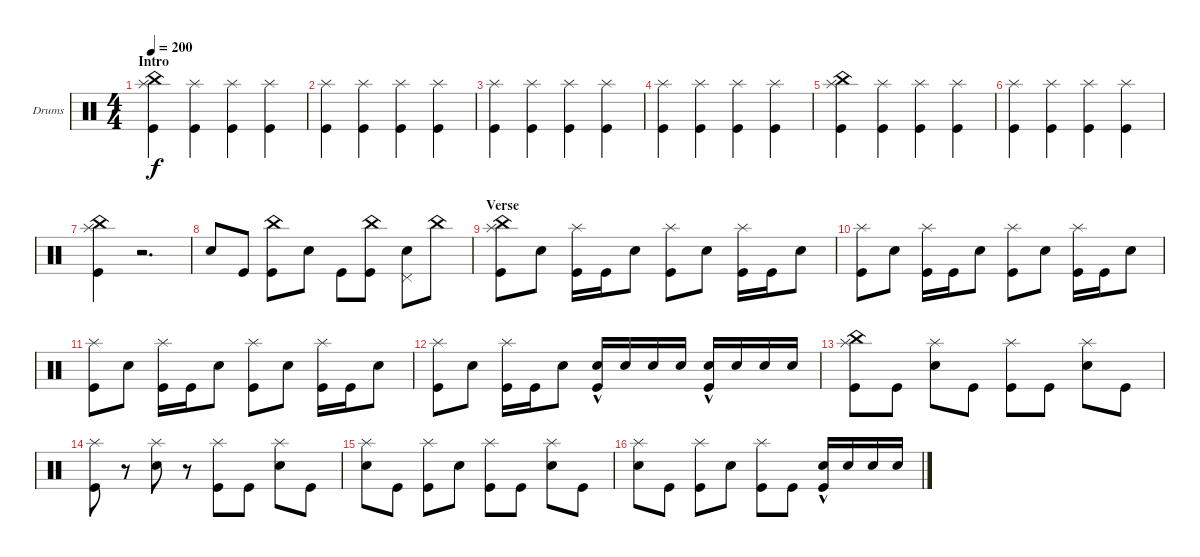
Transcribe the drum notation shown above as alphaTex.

\defaultSystemsLayout 4
\bracketExtendMode groupsimilarinstruments
\firstSystemTrackNameOrientation horizontal
\otherSystemsTrackNameOrientation horizontal
\track ("Drumkit" "Drums") {instrument percussion}
\staff {score}
\articulation defaults
\ts (4 4)
\section ("" "Intro")
\tempo 200
\clef neutral
\ks c
("Kick (hit)" "Splash (hit)" "China (hit)").4{dy f} ("Kick (hit)" "Splash (hit)").4 ("Kick (hit)" "Splash (hit)").4 ("Kick (hit)" "Splash (hit)").4 |
("Kick (hit)" "Splash (hit)").4 ("Kick (hit)" "Splash (hit)").4 ("Kick (hit)" "Splash (hit)").4 ("Kick (hit)" "Splash (hit)").4 |
("Kick (hit)" "Splash (hit)").4 ("Kick (hit)" "Splash (hit)").4 ("Kick (hit)" "Splash (hit)").4 ("Kick (hit)" "Splash (hit)").4 |
("Kick (hit)" "Splash (hit)").4 ("Kick (hit)" "Splash (hit)").4 ("Kick (hit)" "Splash (hit)").4 ("Kick (hit)" "Splash (hit)").4 |
("Kick (hit)" "Splash (hit)" "China (hit)").4 ("Kick (hit)" "Splash (hit)").4 ("Kick (hit)" "Splash (hit)").4 ("Kick (hit)" "Splash (hit)").4 |
("Kick (hit)" "Splash (hit)").4 ("Kick (hit)" "Splash (hit)").4 ("Kick (hit)" "Splash (hit)").4 ("Kick (hit)" "Splash (hit)").4 |
("Kick (hit)" "China (hit)" "Splash (hit)").4 r.2{d} |
"Snare (hit) 2".8 "Kick (hit)".8 ("Kick (hit)" "China (hit)").8 "Snare (hit) 2".8 "Kick (hit)".8 ("Kick (hit)" "China (hit)").8 ("Snare (hit) 2" "Pedal Hi-Hat (hit)").8 "China (hit)".8 |
\section ("" "Verse")
("Splash (hit)" "Kick (hit)" "China (hit)").8 "Snare (hit) 2".8 ("Splash (hit)" "Kick (hit)").16 "Kick (hit)".16 "Snare (hit) 2".8 ("Splash (hit)" "Kick (hit)").8 "Snare (hit) 2".8 ("Splash (hit)" "Kick (hit)").16 "Kick (hit)".16 "Snare (hit) 2".8 |
("Splash (hit)" "Kick (hit)").8 "Snare (hit) 2".8 ("Splash (hit)" "Kick (hit)").16 "Kick (hit)".16 "Snare (hit) 2".8 ("Splash (hit)" "Kick (hit)").8 "Snare (hit) 2".8 ("Splash (hit)" "Kick (hit)").16 "Kick (hit)".16 "Snare (hit) 2".8 |
("Splash (hit)" "Kick (hit)").8 "Snare (hit) 2".8 ("Splash (hit)" "Kick (hit)").16 "Kick (hit)".16 "Snare (hit) 2".8 ("Splash (hit)" "Kick (hit)").8 "Snare (hit) 2".8 ("Splash (hit)" "Kick (hit)").16 "Kick (hit)".16 "Snare (hit) 2".8 |
("Splash (hit)" "Kick (hit)").8 "Snare (hit) 2".8 ("Splash (hit)" "Kick (hit)").16 "Kick (hit)".16 "Snare (hit) 2".8 ("Kick (hit)" "Snare (hit) 2"{hac}).16 "Snare (hit) 2".16 "Snare (hit) 2".16 "Snare (hit) 2".16 ("Kick (hit)" "Snare (hit) 2"{hac}).16 "Snare (hit) 2".16 "Snare (hit) 2".16 "Snare (hit) 2".16 |
("Kick (hit)" "Splash (hit)" "China (hit)").8 "Kick (hit)".8 ("Splash (hit)" "Snare (hit) 2").8 "Kick (hit)".8 ("Kick (hit)" "Splash (hit)").8 "Kick (hit)".8 ("Splash (hit)" "Snare (hit) 2").8 "Kick (hit)".8 |
("Kick (hit)" "Splash (hit)").8 r.8 ("Splash (hit)" "Snare (hit) 2").8 r.8 ("Kick (hit)" "Splash (hit)").8 "Kick (hit)".8 ("Splash (hit)" "Snare (hit) 2").8 "Kick (hit)".8 |
("Splash (hit)" "Snare (hit) 2").8 "Kick (hit)".8 ("Splash (hit)" "Kick (hit)").8 "Snare (hit) 2".8 ("Kick (hit)" "Splash (hit)").8 "Kick (hit)".8 ("Splash (hit)" "Snare (hit) 2").8 "Kick (hit)".8 |
("Splash (hit)" "Snare (hit) 2").8 "Kick (hit)".8 ("Splash (hit)" "Kick (hit)").8 "Snare (hit) 2".8 ("Kick (hit)" "Splash (hit)").8 "Kick (hit)".8 ("Kick (hit)" "Snare (hit) 2"{hac}).16 "Snare (hit) 2".16 "Snare (hit) 2".16 "Snare (hit) 2".16
